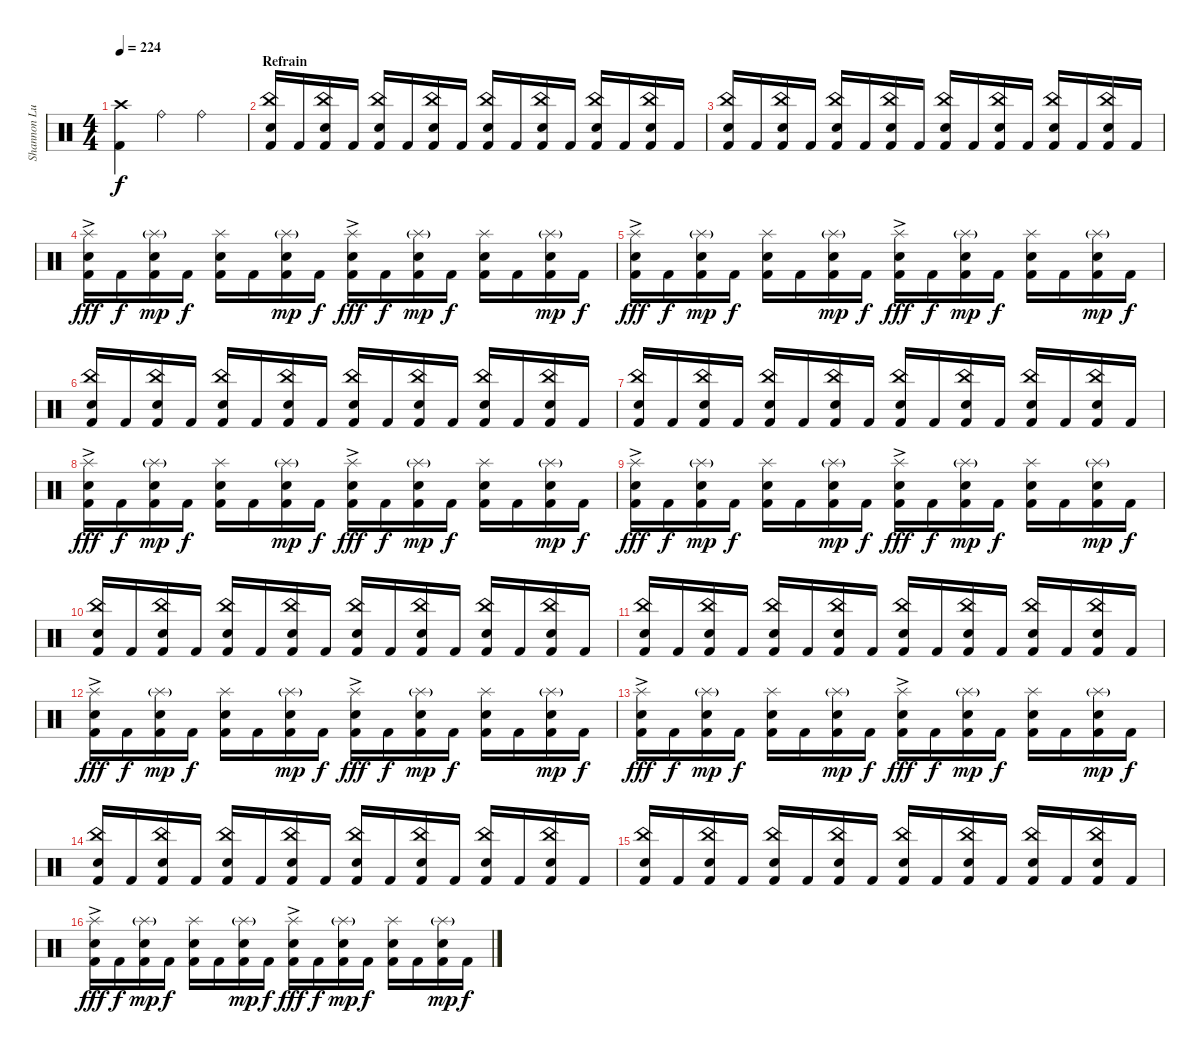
\track ("Shannon Lucas (Drums)" "Shannon Lu") {instrument percussion}
\staff {score}
\articulation defaults
\ts (4 4)
\tempo 224
\clef neutral
\ks c
("Crash high (hit)" "Kick (hit) 2").4{dy f} "Ride (bell)".4 "Ride (bell)".2 |
\section ("" "Refrain")
("China (hit)" "Snare (hit) 2" "Kick (hit) 2").16{balance 4} "Kick (hit) 2".16 ("China (hit)" "Snare (hit) 2" "Kick (hit) 2").16 "Kick (hit) 2".16 ("China (hit)" "Snare (hit) 2" "Kick (hit) 2").16 "Kick (hit) 2".16 ("China (hit)" "Snare (hit) 2" "Kick (hit) 2").16 "Kick (hit) 2".16 ("China (hit)" "Snare (hit) 2" "Kick (hit) 2").16 "Kick (hit) 2".16 ("China (hit)" "Snare (hit) 2" "Kick (hit) 2").16 "Kick (hit) 2".16 ("China (hit)" "Snare (hit) 2" "Kick (hit) 2").16 "Kick (hit) 2".16 ("China (hit)" "Snare (hit) 2" "Kick (hit) 2").16 "Kick (hit) 2".16 |
("China (hit)" "Snare (hit) 2" "Kick (hit) 2").16 "Kick (hit) 2".16 ("China (hit)" "Snare (hit) 2" "Kick (hit) 2").16 "Kick (hit) 2".16 ("China (hit)" "Snare (hit) 2" "Kick (hit) 2").16 "Kick (hit) 2".16 ("China (hit)" "Snare (hit) 2" "Kick (hit) 2").16 "Kick (hit) 2".16 ("China (hit)" "Snare (hit) 2" "Kick (hit) 2").16 "Kick (hit) 2".16 ("China (hit)" "Snare (hit) 2" "Kick (hit) 2").16 "Kick (hit) 2".16 ("China (hit)" "Snare (hit) 2" "Kick (hit) 2").16 "Kick (hit) 2".16 ("China (hit)" "Snare (hit) 2" "Kick (hit) 2").16 "Kick (hit) 2".16 |
("Splash (hit)"{ac} "Snare (hit) 2" "Kick (hit) 2").16{dy fff balance 12} "Kick (hit) 2".16{dy f} ("Splash (hit)"{g} "Snare (hit) 2" "Kick (hit) 2").16{dy mp} "Kick (hit) 2".16{dy f} ("Splash (hit)" "Snare (hit) 2" "Kick (hit) 2").16 "Kick (hit) 2".16 ("Splash (hit)"{g} "Snare (hit) 2" "Kick (hit) 2").16{dy mp} "Kick (hit) 2".16{dy f} ("Splash (hit)"{ac} "Snare (hit) 2" "Kick (hit) 2").16{dy fff} "Kick (hit) 2".16{dy f} ("Splash (hit)"{g} "Snare (hit) 2" "Kick (hit) 2").16{dy mp} "Kick (hit) 2".16{dy f} ("Splash (hit)" "Snare (hit) 2" "Kick (hit) 2").16 "Kick (hit) 2".16 ("Splash (hit)"{g} "Snare (hit) 2" "Kick (hit) 2").16{dy mp} "Kick (hit) 2".16{dy f} |
("Splash (hit)"{ac} "Snare (hit) 2" "Kick (hit) 2").16{dy fff} "Kick (hit) 2".16{dy f} ("Splash (hit)"{g} "Snare (hit) 2" "Kick (hit) 2").16{dy mp} "Kick (hit) 2".16{dy f} ("Splash (hit)" "Snare (hit) 2" "Kick (hit) 2").16 "Kick (hit) 2".16 ("Splash (hit)"{g} "Snare (hit) 2" "Kick (hit) 2").16{dy mp} "Kick (hit) 2".16{dy f} ("Splash (hit)"{ac} "Snare (hit) 2" "Kick (hit) 2").16{dy fff} "Kick (hit) 2".16{dy f} ("Splash (hit)"{g} "Snare (hit) 2" "Kick (hit) 2").16{dy mp} "Kick (hit) 2".16{dy f} ("Splash (hit)" "Snare (hit) 2" "Kick (hit) 2").16 "Kick (hit) 2".16 ("Splash (hit)"{g} "Snare (hit) 2" "Kick (hit) 2").16{dy mp} "Kick (hit) 2".16{dy f} |
("China (hit)" "Snare (hit) 2" "Kick (hit) 2").16{balance 4} "Kick (hit) 2".16 ("China (hit)" "Snare (hit) 2" "Kick (hit) 2").16 "Kick (hit) 2".16 ("China (hit)" "Snare (hit) 2" "Kick (hit) 2").16 "Kick (hit) 2".16 ("China (hit)" "Snare (hit) 2" "Kick (hit) 2").16 "Kick (hit) 2".16 ("China (hit)" "Snare (hit) 2" "Kick (hit) 2").16 "Kick (hit) 2".16 ("China (hit)" "Snare (hit) 2" "Kick (hit) 2").16 "Kick (hit) 2".16 ("China (hit)" "Snare (hit) 2" "Kick (hit) 2").16 "Kick (hit) 2".16 ("China (hit)" "Snare (hit) 2" "Kick (hit) 2").16 "Kick (hit) 2".16 |
("China (hit)" "Snare (hit) 2" "Kick (hit) 2").16 "Kick (hit) 2".16 ("China (hit)" "Snare (hit) 2" "Kick (hit) 2").16 "Kick (hit) 2".16 ("China (hit)" "Snare (hit) 2" "Kick (hit) 2").16 "Kick (hit) 2".16 ("China (hit)" "Snare (hit) 2" "Kick (hit) 2").16 "Kick (hit) 2".16 ("China (hit)" "Snare (hit) 2" "Kick (hit) 2").16 "Kick (hit) 2".16 ("China (hit)" "Snare (hit) 2" "Kick (hit) 2").16 "Kick (hit) 2".16 ("China (hit)" "Snare (hit) 2" "Kick (hit) 2").16 "Kick (hit) 2".16 ("China (hit)" "Snare (hit) 2" "Kick (hit) 2").16 "Kick (hit) 2".16 |
("Splash (hit)"{ac} "Snare (hit) 2" "Kick (hit) 2").16{dy fff balance 12} "Kick (hit) 2".16{dy f} ("Splash (hit)"{g} "Snare (hit) 2" "Kick (hit) 2").16{dy mp} "Kick (hit) 2".16{dy f} ("Splash (hit)" "Snare (hit) 2" "Kick (hit) 2").16 "Kick (hit) 2".16 ("Splash (hit)"{g} "Snare (hit) 2" "Kick (hit) 2").16{dy mp} "Kick (hit) 2".16{dy f} ("Splash (hit)"{ac} "Snare (hit) 2" "Kick (hit) 2").16{dy fff} "Kick (hit) 2".16{dy f} ("Splash (hit)"{g} "Snare (hit) 2" "Kick (hit) 2").16{dy mp} "Kick (hit) 2".16{dy f} ("Splash (hit)" "Snare (hit) 2" "Kick (hit) 2").16 "Kick (hit) 2".16 ("Splash (hit)"{g} "Snare (hit) 2" "Kick (hit) 2").16{dy mp} "Kick (hit) 2".16{dy f} |
("Splash (hit)"{ac} "Snare (hit) 2" "Kick (hit) 2").16{dy fff} "Kick (hit) 2".16{dy f} ("Splash (hit)"{g} "Snare (hit) 2" "Kick (hit) 2").16{dy mp} "Kick (hit) 2".16{dy f} ("Splash (hit)" "Snare (hit) 2" "Kick (hit) 2").16 "Kick (hit) 2".16 ("Splash (hit)"{g} "Snare (hit) 2" "Kick (hit) 2").16{dy mp} "Kick (hit) 2".16{dy f} ("Splash (hit)"{ac} "Snare (hit) 2" "Kick (hit) 2").16{dy fff} "Kick (hit) 2".16{dy f} ("Splash (hit)"{g} "Snare (hit) 2" "Kick (hit) 2").16{dy mp} "Kick (hit) 2".16{dy f} ("Splash (hit)" "Snare (hit) 2" "Kick (hit) 2").16 "Kick (hit) 2".16 ("Splash (hit)"{g} "Snare (hit) 2" "Kick (hit) 2").16{dy mp} "Kick (hit) 2".16{dy f} |
("China (hit)" "Snare (hit) 2" "Kick (hit) 2").16{balance 4} "Kick (hit) 2".16 ("China (hit)" "Snare (hit) 2" "Kick (hit) 2").16 "Kick (hit) 2".16 ("China (hit)" "Snare (hit) 2" "Kick (hit) 2").16 "Kick (hit) 2".16 ("China (hit)" "Snare (hit) 2" "Kick (hit) 2").16 "Kick (hit) 2".16 ("China (hit)" "Snare (hit) 2" "Kick (hit) 2").16 "Kick (hit) 2".16 ("China (hit)" "Snare (hit) 2" "Kick (hit) 2").16 "Kick (hit) 2".16 ("China (hit)" "Snare (hit) 2" "Kick (hit) 2").16 "Kick (hit) 2".16 ("China (hit)" "Snare (hit) 2" "Kick (hit) 2").16 "Kick (hit) 2".16 |
("China (hit)" "Snare (hit) 2" "Kick (hit) 2").16 "Kick (hit) 2".16 ("China (hit)" "Snare (hit) 2" "Kick (hit) 2").16 "Kick (hit) 2".16 ("China (hit)" "Snare (hit) 2" "Kick (hit) 2").16 "Kick (hit) 2".16 ("China (hit)" "Snare (hit) 2" "Kick (hit) 2").16 "Kick (hit) 2".16 ("China (hit)" "Snare (hit) 2" "Kick (hit) 2").16 "Kick (hit) 2".16 ("China (hit)" "Snare (hit) 2" "Kick (hit) 2").16 "Kick (hit) 2".16 ("China (hit)" "Snare (hit) 2" "Kick (hit) 2").16 "Kick (hit) 2".16 ("China (hit)" "Snare (hit) 2" "Kick (hit) 2").16 "Kick (hit) 2".16 |
("Splash (hit)"{ac} "Snare (hit) 2" "Kick (hit) 2").16{dy fff balance 12} "Kick (hit) 2".16{dy f} ("Splash (hit)"{g} "Snare (hit) 2" "Kick (hit) 2").16{dy mp} "Kick (hit) 2".16{dy f} ("Splash (hit)" "Snare (hit) 2" "Kick (hit) 2").16 "Kick (hit) 2".16 ("Splash (hit)"{g} "Snare (hit) 2" "Kick (hit) 2").16{dy mp} "Kick (hit) 2".16{dy f} ("Splash (hit)"{ac} "Snare (hit) 2" "Kick (hit) 2").16{dy fff} "Kick (hit) 2".16{dy f} ("Splash (hit)"{g} "Snare (hit) 2" "Kick (hit) 2").16{dy mp} "Kick (hit) 2".16{dy f} ("Splash (hit)" "Snare (hit) 2" "Kick (hit) 2").16 "Kick (hit) 2".16 ("Splash (hit)"{g} "Snare (hit) 2" "Kick (hit) 2").16{dy mp} "Kick (hit) 2".16{dy f} |
("Splash (hit)"{ac} "Snare (hit) 2" "Kick (hit) 2").16{dy fff} "Kick (hit) 2".16{dy f} ("Splash (hit)"{g} "Snare (hit) 2" "Kick (hit) 2").16{dy mp} "Kick (hit) 2".16{dy f} ("Splash (hit)" "Snare (hit) 2" "Kick (hit) 2").16 "Kick (hit) 2".16 ("Splash (hit)"{g} "Snare (hit) 2" "Kick (hit) 2").16{dy mp} "Kick (hit) 2".16{dy f} ("Splash (hit)"{ac} "Snare (hit) 2" "Kick (hit) 2").16{dy fff} "Kick (hit) 2".16{dy f} ("Splash (hit)"{g} "Snare (hit) 2" "Kick (hit) 2").16{dy mp} "Kick (hit) 2".16{dy f} ("Splash (hit)" "Snare (hit) 2" "Kick (hit) 2").16 "Kick (hit) 2".16 ("Splash (hit)"{g} "Snare (hit) 2" "Kick (hit) 2").16{dy mp} "Kick (hit) 2".16{dy f} |
("China (hit)" "Snare (hit) 2" "Kick (hit) 2").16{balance 4} "Kick (hit) 2".16 ("China (hit)" "Snare (hit) 2" "Kick (hit) 2").16 "Kick (hit) 2".16 ("China (hit)" "Snare (hit) 2" "Kick (hit) 2").16 "Kick (hit) 2".16 ("China (hit)" "Snare (hit) 2" "Kick (hit) 2").16 "Kick (hit) 2".16 ("China (hit)" "Snare (hit) 2" "Kick (hit) 2").16 "Kick (hit) 2".16 ("China (hit)" "Snare (hit) 2" "Kick (hit) 2").16 "Kick (hit) 2".16 ("China (hit)" "Snare (hit) 2" "Kick (hit) 2").16 "Kick (hit) 2".16 ("China (hit)" "Snare (hit) 2" "Kick (hit) 2").16 "Kick (hit) 2".16 |
("China (hit)" "Snare (hit) 2" "Kick (hit) 2").16 "Kick (hit) 2".16 ("China (hit)" "Snare (hit) 2" "Kick (hit) 2").16 "Kick (hit) 2".16 ("China (hit)" "Snare (hit) 2" "Kick (hit) 2").16 "Kick (hit) 2".16 ("China (hit)" "Snare (hit) 2" "Kick (hit) 2").16 "Kick (hit) 2".16 ("China (hit)" "Snare (hit) 2" "Kick (hit) 2").16 "Kick (hit) 2".16 ("China (hit)" "Snare (hit) 2" "Kick (hit) 2").16 "Kick (hit) 2".16 ("China (hit)" "Snare (hit) 2" "Kick (hit) 2").16 "Kick (hit) 2".16 ("China (hit)" "Snare (hit) 2" "Kick (hit) 2").16 "Kick (hit) 2".16 |
("Splash (hit)"{ac} "Snare (hit) 2" "Kick (hit) 2").16{dy fff balance 12} "Kick (hit) 2".16{dy f} ("Splash (hit)"{g} "Snare (hit) 2" "Kick (hit) 2").16{dy mp} "Kick (hit) 2".16{dy f} ("Splash (hit)" "Snare (hit) 2" "Kick (hit) 2").16 "Kick (hit) 2".16 ("Splash (hit)"{g} "Snare (hit) 2" "Kick (hit) 2").16{dy mp} "Kick (hit) 2".16{dy f} ("Splash (hit)"{ac} "Snare (hit) 2" "Kick (hit) 2").16{dy fff} "Kick (hit) 2".16{dy f} ("Splash (hit)"{g} "Snare (hit) 2" "Kick (hit) 2").16{dy mp} "Kick (hit) 2".16{dy f} ("Splash (hit)" "Snare (hit) 2" "Kick (hit) 2").16 "Kick (hit) 2".16 ("Splash (hit)"{g} "Snare (hit) 2" "Kick (hit) 2").16{dy mp} "Kick (hit) 2".16{dy f}
